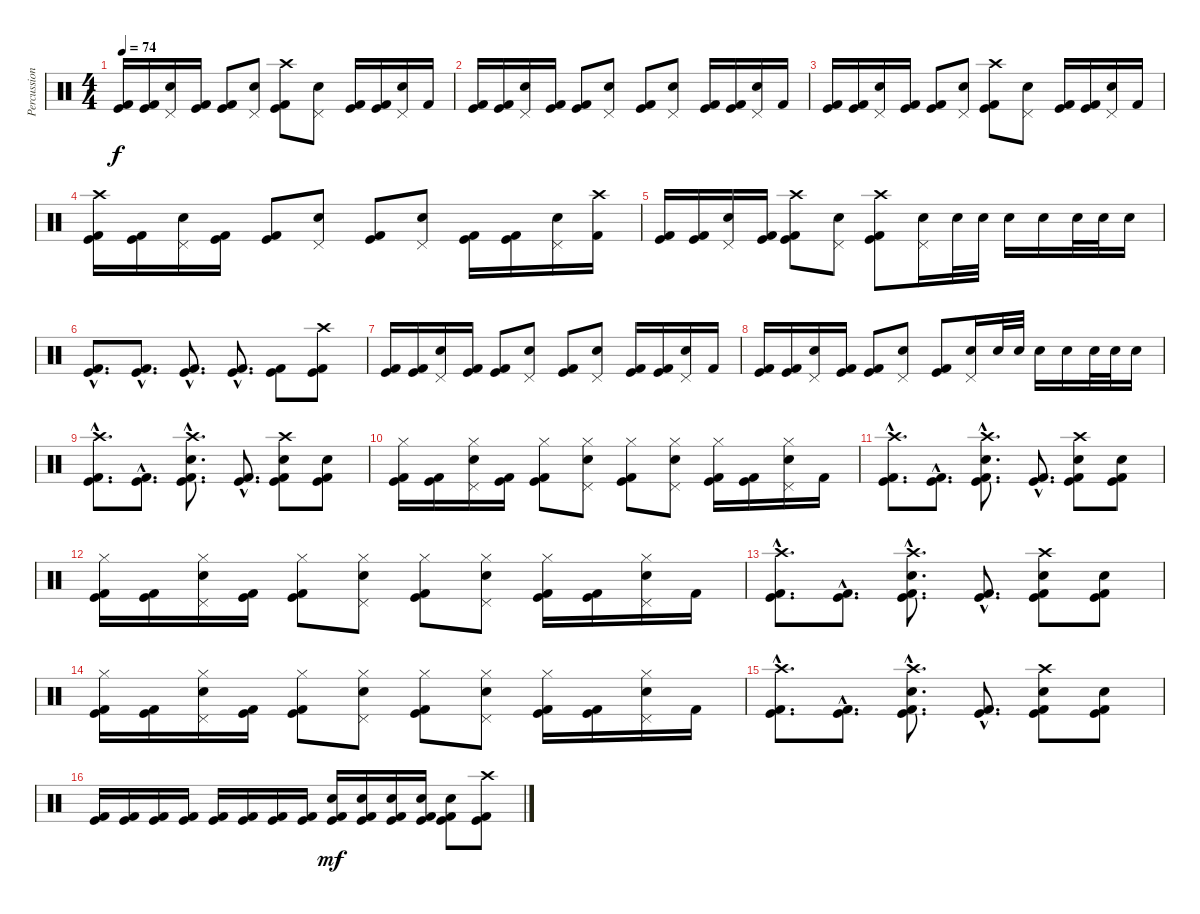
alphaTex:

\track ("Percussion" "Percussion") {instrument percussion}
\staff {score}
\articulation defaults
\ts (4 4)
\tempo 74
\clef neutral
\ks c
("Kick (hit) 2" "Kick (hit)").16{dy f} ("Kick (hit) 2" "Kick (hit)").16 ("Electric Snare (hit)" "Pedal Hi-Hat (hit)").16 ("Kick (hit) 2" "Kick (hit)").16 ("Kick (hit) 2" "Kick (hit)").8 ("Electric Snare (hit)" "Pedal Hi-Hat (hit)").8 ("Kick (hit) 2" "Kick (hit)" "Crash high (hit)").8 ("Electric Snare (hit)" "Pedal Hi-Hat (hit)").8 ("Kick (hit) 2" "Kick (hit)").16 ("Kick (hit) 2" "Kick (hit)").16 ("Electric Snare (hit)" "Pedal Hi-Hat (hit)").16 "Kick (hit) 2".16 |
("Kick (hit) 2" "Kick (hit)").16 ("Kick (hit) 2" "Kick (hit)").16 ("Electric Snare (hit)" "Pedal Hi-Hat (hit)").16 ("Kick (hit) 2" "Kick (hit)").16 ("Kick (hit) 2" "Kick (hit)").8 ("Electric Snare (hit)" "Pedal Hi-Hat (hit)").8 ("Kick (hit) 2" "Kick (hit)").8 ("Electric Snare (hit)" "Pedal Hi-Hat (hit)").8 ("Kick (hit) 2" "Kick (hit)").16 ("Kick (hit) 2" "Kick (hit)").16 ("Electric Snare (hit)" "Pedal Hi-Hat (hit)").16 "Kick (hit) 2".16 |
("Kick (hit) 2" "Kick (hit)").16 ("Kick (hit) 2" "Kick (hit)").16 ("Electric Snare (hit)" "Pedal Hi-Hat (hit)").16 ("Kick (hit) 2" "Kick (hit)").16 ("Kick (hit) 2" "Kick (hit)").8 ("Electric Snare (hit)" "Pedal Hi-Hat (hit)").8 ("Kick (hit) 2" "Kick (hit)" "Crash high (hit)").8 ("Electric Snare (hit)" "Pedal Hi-Hat (hit)").8 ("Kick (hit) 2" "Kick (hit)").16 ("Kick (hit) 2" "Kick (hit)").16 ("Electric Snare (hit)" "Pedal Hi-Hat (hit)").16 "Kick (hit) 2".16 |
("Kick (hit) 2" "Kick (hit)" "Crash high (hit)").16 ("Kick (hit) 2" "Kick (hit)").16 ("Electric Snare (hit)" "Pedal Hi-Hat (hit)").16 ("Kick (hit) 2" "Kick (hit)").16 ("Kick (hit) 2" "Kick (hit)").8 ("Electric Snare (hit)" "Pedal Hi-Hat (hit)").8 ("Kick (hit) 2" "Kick (hit)").8 ("Electric Snare (hit)" "Pedal Hi-Hat (hit)").8 ("Kick (hit) 2" "Kick (hit)").16 ("Kick (hit) 2" "Kick (hit)").16 ("Electric Snare (hit)" "Pedal Hi-Hat (hit)").16 ("Kick (hit) 2" "Crash high (hit)").16 |
("Kick (hit) 2" "Kick (hit)").16 ("Kick (hit) 2" "Kick (hit)").16 ("Electric Snare (hit)" "Pedal Hi-Hat (hit)").16 ("Kick (hit) 2" "Kick (hit)").16 ("Kick (hit) 2" "Kick (hit)" "Crash high (hit)").8 ("Electric Snare (hit)" "Pedal Hi-Hat (hit)").8 ("Kick (hit) 2" "Kick (hit)" "Crash high (hit)").8 ("Electric Snare (hit)" "Pedal Hi-Hat (hit)").16 "Electric Snare (hit)".32 "Electric Snare (hit)".32 "Electric Snare (hit)".16 "Electric Snare (hit)".16 "Electric Snare (hit)".32 "Electric Snare (hit)".32 "Electric Snare (hit)".16 |
("Kick (hit) 2"{hac} "Kick (hit)"{hac}).8{d} ("Kick (hit) 2"{hac} "Kick (hit)"{hac}).8{d} ("Kick (hit) 2"{hac} "Kick (hit)"{hac}).8{d} ("Kick (hit) 2"{hac} "Kick (hit)"{hac}).8{d} ("Kick (hit) 2" "Kick (hit)").8 ("Kick (hit) 2" "Kick (hit)" "Crash high (hit)").8 |
("Kick (hit) 2" "Kick (hit)").16 ("Kick (hit) 2" "Kick (hit)").16 ("Electric Snare (hit)" "Pedal Hi-Hat (hit)").16 ("Kick (hit) 2" "Kick (hit)").16 ("Kick (hit) 2" "Kick (hit)").8 ("Electric Snare (hit)" "Pedal Hi-Hat (hit)").8 ("Kick (hit) 2" "Kick (hit)").8 ("Electric Snare (hit)" "Pedal Hi-Hat (hit)").8 ("Kick (hit) 2" "Kick (hit)").16 ("Kick (hit) 2" "Kick (hit)").16 ("Electric Snare (hit)" "Pedal Hi-Hat (hit)").16 "Kick (hit) 2".16 |
("Kick (hit) 2" "Kick (hit)").16 ("Kick (hit) 2" "Kick (hit)").16 ("Electric Snare (hit)" "Pedal Hi-Hat (hit)").16 ("Kick (hit) 2" "Kick (hit)").16 ("Kick (hit) 2" "Kick (hit)").8 ("Electric Snare (hit)" "Pedal Hi-Hat (hit)").8 ("Kick (hit) 2" "Kick (hit)").8 ("Electric Snare (hit)" "Pedal Hi-Hat (hit)").16 "Electric Snare (hit)".32 "Electric Snare (hit)".32 "Electric Snare (hit)".16 "Electric Snare (hit)".16 "Electric Snare (hit)".32 "Electric Snare (hit)".32 "Electric Snare (hit)".16 |
("Kick (hit) 2"{hac} "Kick (hit)"{hac} "Crash high (hit)"{hac}).8{d} ("Kick (hit) 2"{hac} "Kick (hit)"{hac}).8{d} ("Kick (hit) 2"{hac} "Kick (hit)"{hac} "Electric Snare (hit)"{hac} "Crash high (hit)"{hac}).8{d} ("Kick (hit) 2"{hac} "Kick (hit)"{hac}).8{d} ("Kick (hit) 2" "Kick (hit)" "Electric Snare (hit)" "Crash high (hit)").8 ("Kick (hit) 2" "Kick (hit)" "Electric Snare (hit)").8 |
("Kick (hit) 2" "Kick (hit)" "Hi-Hat (closed)").16 ("Kick (hit) 2" "Kick (hit)").16 ("Electric Snare (hit)" "Pedal Hi-Hat (hit)" "Hi-Hat (closed)").16 ("Kick (hit) 2" "Kick (hit)").16 ("Kick (hit) 2" "Kick (hit)" "Hi-Hat (closed)").8 ("Electric Snare (hit)" "Pedal Hi-Hat (hit)" "Hi-Hat (closed)").8 ("Kick (hit) 2" "Kick (hit)" "Hi-Hat (closed)").8 ("Electric Snare (hit)" "Pedal Hi-Hat (hit)" "Hi-Hat (closed)").8 ("Kick (hit) 2" "Kick (hit)" "Hi-Hat (closed)").16 ("Kick (hit) 2" "Kick (hit)").16 ("Electric Snare (hit)" "Pedal Hi-Hat (hit)" "Hi-Hat (closed)").16 "Kick (hit) 2".16 |
("Kick (hit) 2"{hac} "Kick (hit)"{hac} "Crash high (hit)"{hac}).8{d} ("Kick (hit) 2"{hac} "Kick (hit)"{hac}).8{d} ("Kick (hit) 2"{hac} "Kick (hit)"{hac} "Electric Snare (hit)"{hac} "Crash high (hit)"{hac}).8{d} ("Kick (hit) 2"{hac} "Kick (hit)"{hac}).8{d} ("Kick (hit) 2" "Kick (hit)" "Electric Snare (hit)" "Crash high (hit)").8 ("Kick (hit) 2" "Kick (hit)" "Electric Snare (hit)").8 |
("Kick (hit) 2" "Kick (hit)" "Hi-Hat (closed)").16 ("Kick (hit) 2" "Kick (hit)").16 ("Electric Snare (hit)" "Pedal Hi-Hat (hit)" "Hi-Hat (closed)").16 ("Kick (hit) 2" "Kick (hit)").16 ("Kick (hit) 2" "Kick (hit)" "Hi-Hat (closed)").8 ("Electric Snare (hit)" "Pedal Hi-Hat (hit)" "Hi-Hat (closed)").8 ("Kick (hit) 2" "Kick (hit)" "Hi-Hat (closed)").8 ("Electric Snare (hit)" "Pedal Hi-Hat (hit)" "Hi-Hat (closed)").8 ("Kick (hit) 2" "Kick (hit)" "Hi-Hat (closed)").16 ("Kick (hit) 2" "Kick (hit)").16 ("Electric Snare (hit)" "Pedal Hi-Hat (hit)" "Hi-Hat (closed)").16 "Kick (hit) 2".16 |
("Kick (hit) 2"{hac} "Kick (hit)"{hac} "Crash high (hit)"{hac}).8{d} ("Kick (hit) 2"{hac} "Kick (hit)"{hac}).8{d} ("Kick (hit) 2"{hac} "Kick (hit)"{hac} "Electric Snare (hit)"{hac} "Crash high (hit)"{hac}).8{d} ("Kick (hit) 2"{hac} "Kick (hit)"{hac}).8{d} ("Kick (hit) 2" "Kick (hit)" "Electric Snare (hit)" "Crash high (hit)").8 ("Kick (hit) 2" "Kick (hit)" "Electric Snare (hit)").8 |
("Kick (hit) 2" "Kick (hit)" "Hi-Hat (closed)").16 ("Kick (hit) 2" "Kick (hit)").16 ("Electric Snare (hit)" "Pedal Hi-Hat (hit)" "Hi-Hat (closed)").16 ("Kick (hit) 2" "Kick (hit)").16 ("Kick (hit) 2" "Kick (hit)" "Hi-Hat (closed)").8 ("Electric Snare (hit)" "Pedal Hi-Hat (hit)" "Hi-Hat (closed)").8 ("Kick (hit) 2" "Kick (hit)" "Hi-Hat (closed)").8 ("Electric Snare (hit)" "Pedal Hi-Hat (hit)" "Hi-Hat (closed)").8 ("Kick (hit) 2" "Kick (hit)" "Hi-Hat (closed)").16 ("Kick (hit) 2" "Kick (hit)").16 ("Electric Snare (hit)" "Pedal Hi-Hat (hit)" "Hi-Hat (closed)").16 "Kick (hit) 2".16 |
("Kick (hit) 2"{hac} "Kick (hit)"{hac} "Crash high (hit)"{hac}).8{d} ("Kick (hit) 2"{hac} "Kick (hit)"{hac}).8{d} ("Kick (hit) 2"{hac} "Kick (hit)"{hac} "Electric Snare (hit)"{hac} "Crash high (hit)"{hac}).8{d} ("Kick (hit) 2"{hac} "Kick (hit)"{hac}).8{d} ("Kick (hit) 2" "Kick (hit)" "Electric Snare (hit)" "Crash high (hit)").8 ("Kick (hit) 2" "Kick (hit)" "Electric Snare (hit)").8 |
("Kick (hit) 2" "Kick (hit)").16 ("Kick (hit) 2" "Kick (hit)").16 ("Kick (hit) 2" "Kick (hit)").16 ("Kick (hit) 2" "Kick (hit)").16 ("Kick (hit) 2" "Kick (hit)").16 ("Kick (hit) 2" "Kick (hit)").16 ("Kick (hit) 2" "Kick (hit)").16 ("Kick (hit) 2" "Kick (hit)").16 ("Kick (hit) 2" "Kick (hit)" "Electric Snare (hit)").16{dy mf} ("Kick (hit) 2" "Kick (hit)" "Electric Snare (hit)").16 ("Kick (hit) 2" "Kick (hit)" "Electric Snare (hit)").16 ("Kick (hit) 2" "Kick (hit)" "Electric Snare (hit)").16 ("Kick (hit) 2" "Kick (hit)" "Electric Snare (hit)").8 ("Kick (hit) 2" "Kick (hit)" "Crash high (hit)").8
